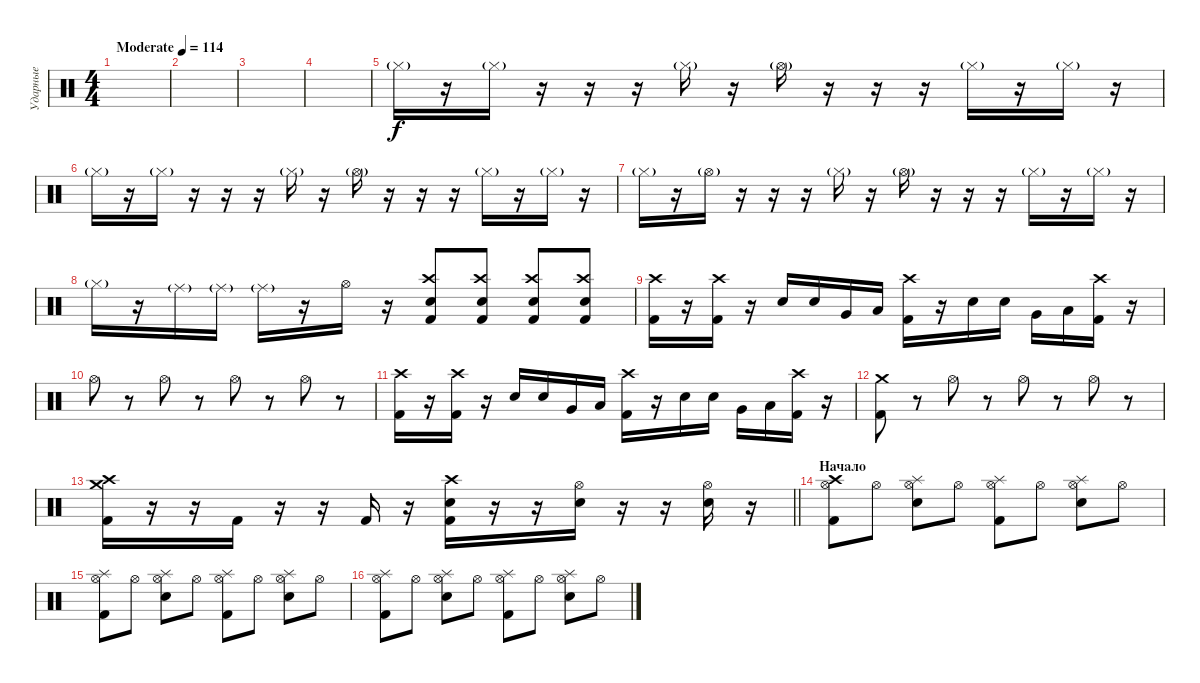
\track ("Ударные" "Ударные") {instrument percussion}
\staff {score}
\articulation defaults
\ts (4 4)
\tempo (114 "Moderate")
\clef neutral
\ks c
|
|
|
|
"Hi-Hat (closed)"{g}.16 r.16 "Hi-Hat (closed)"{g}.16 r.16 r.16 r.16 "Hi-Hat (closed)"{g}.16 r.16 "Hi-Hat (open)"{g}.16 r.16 r.16 r.16 "Hi-Hat (closed)"{g}.16 r.16 "Hi-Hat (closed)"{g}.16 r.16 |
"Hi-Hat (closed)"{g}.16 r.16 "Hi-Hat (closed)"{g}.16 r.16 r.16 r.16 "Hi-Hat (closed)"{g}.16 r.16 "Hi-Hat (open)"{g}.16 r.16 r.16 r.16 "Hi-Hat (closed)"{g}.16 r.16 "Hi-Hat (closed)"{g}.16 r.16 |
"Hi-Hat (closed)"{g}.16 r.16 "Hi-Hat (open)"{g}.16 r.16 r.16 r.16 "Hi-Hat (closed)"{g}.16 r.16 "Hi-Hat (open)"{g}.16 r.16 r.16 r.16 "Hi-Hat (closed)"{g}.16 r.16 "Hi-Hat (closed)"{g}.16 r.16 |
"Hi-Hat (closed)"{g}.16 r.16 "Ride (middle)"{g}.16 "Ride (middle)"{g}.16 "Ride (middle)"{g}.16 r.16 "Hi-Hat (open)".16{dy f} r.16 ("Snare (hit) 2" "Crash high (hit)" "Kick (hit) 2").8 ("Snare (hit) 2" "Crash high (hit)" "Kick (hit) 2").8 ("Snare (hit) 2" "Crash high (hit)" "Kick (hit) 2").8 ("Snare (hit) 2" "Crash high (hit)" "Kick (hit) 2").8 |
("Crash high (hit)" "Kick (hit) 2").16 r.16 ("Crash high (hit)" "Kick (hit) 2").16 r.16 "Snare (hit) 2".16 "Snare (hit) 2".16 "Very Low Tom (hit)".16 "Low Tom (hit)".16 ("Crash high (hit)" "Kick (hit) 2").16 r.16 "Snare (hit) 2".16 "Snare (hit) 2".16 "Very Low Tom (hit)".16 "Low Tom (hit)".16 ("Crash high (hit)" "Kick (hit) 2").16 r.16 |
"Hi-Hat (open)".8 r.8 "Hi-Hat (open)".8 r.8 "Hi-Hat (open)".8 r.8 "Hi-Hat (open)".8 r.8 |
("Crash high (hit)" "Kick (hit) 2").16 r.16 ("Crash high (hit)" "Kick (hit) 2").16 r.16 "Snare (hit) 2".16 "Snare (hit) 2".16 "Very Low Tom (hit)".16 "Low Tom (hit)".16 ("Crash high (hit)" "Kick (hit) 2").16 r.16 "Snare (hit) 2".16 "Snare (hit) 2".16 "Very Low Tom (hit)".16 "Low Tom (hit)".16 ("Crash high (hit)" "Kick (hit) 2").16 r.16 |
("Crash medium (hit)" "Kick (hit) 2").8 r.8 "Hi-Hat (open)".8 r.8 "Hi-Hat (open)".8 r.8 "Hi-Hat (open)".8 r.8 |
\barLineRight lightlight
("Kick (hit) 2" "Crash high (hit)" "Crash medium (hit)").16 r.16 r.16 "Kick (hit) 2".16 r.16 r.16 "Kick (hit) 2".16 r.16 ("Snare (hit) 2" "Kick (hit) 2" "Crash high (hit)").16 r.16 r.16 ("Snare (hit) 2" "Hi-Hat (open)").16 r.16 r.16 ("Snare (hit) 2" "Hi-Hat (open)").16 r.16 |
\section ("" "Начало")
("Crash high (hit)" "Hi-Hat (open)" "Kick (hit) 2").8 "Hi-Hat (open)".8 ("Splash (hit)" "Hi-Hat (open)" "Snare (hit) 2").8 "Hi-Hat (open)".8 ("Splash (hit)" "Hi-Hat (open)" "Kick (hit) 2").8 "Hi-Hat (open)".8 ("Splash (hit)" "Hi-Hat (open)" "Snare (hit) 2").8 "Hi-Hat (open)".8 |
("Splash (hit)" "Hi-Hat (open)" "Kick (hit) 2").8 "Hi-Hat (open)".8 ("Splash (hit)" "Hi-Hat (open)" "Snare (hit) 2").8 "Hi-Hat (open)".8 ("Splash (hit)" "Hi-Hat (open)" "Kick (hit) 2").8 "Hi-Hat (open)".8 ("Splash (hit)" "Hi-Hat (open)" "Snare (hit) 2").8 "Hi-Hat (open)".8 |
("Splash (hit)" "Hi-Hat (open)" "Kick (hit) 2").8 "Hi-Hat (open)".8 ("Splash (hit)" "Hi-Hat (open)" "Snare (hit) 2").8 "Hi-Hat (open)".8 ("Splash (hit)" "Hi-Hat (open)" "Kick (hit) 2").8 "Hi-Hat (open)".8 ("Splash (hit)" "Hi-Hat (open)" "Snare (hit) 2").8 "Hi-Hat (open)".8
